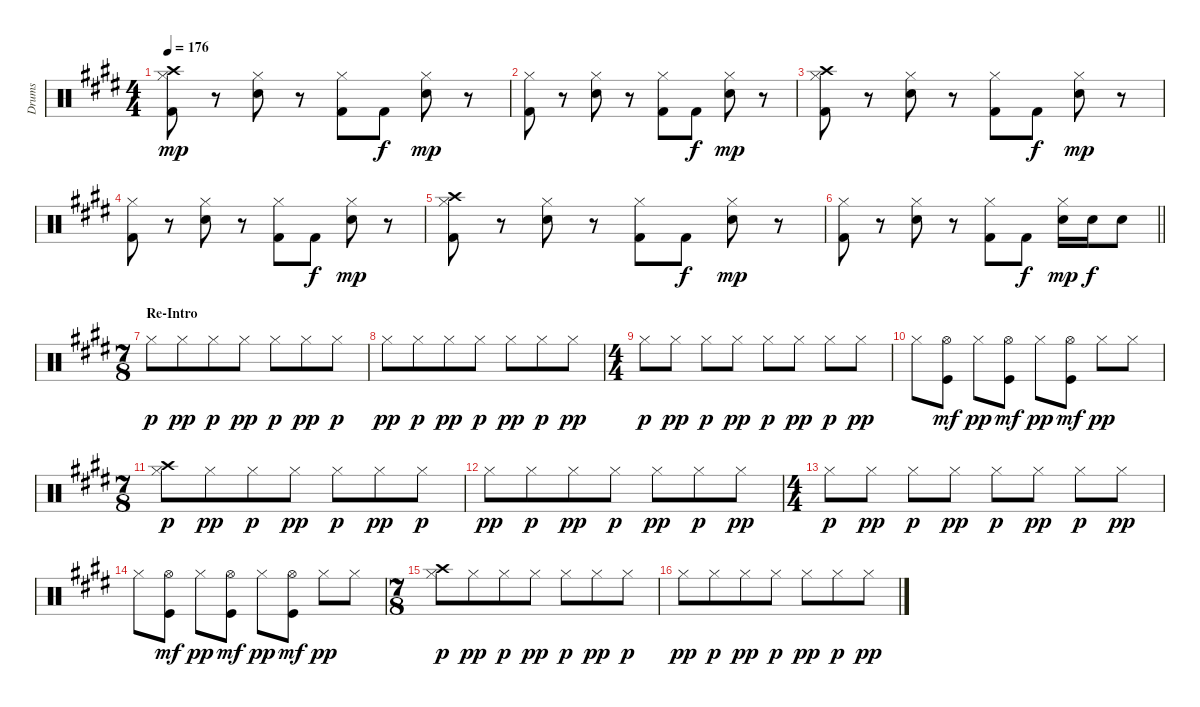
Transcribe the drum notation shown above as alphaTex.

\track ("Drums" "Drums") {instrument percussion}
\staff {score}
\articulation defaults
\ts (4 4)
\tempo 176
\clef neutral
\ks e
("Crash high (hit)" "Hi-Hat (closed)" "Kick (hit) 2").8{dy mp} r.8 ("Hi-Hat (closed)" "Snare (hit) 2").8 r.8 ("Hi-Hat (closed)" "Kick (hit) 2").8 "Kick (hit) 2".8{dy f} ("Hi-Hat (closed)" "Snare (hit) 2").8{dy mp} r.8 |
("Hi-Hat (closed)" "Kick (hit) 2").8 r.8 ("Hi-Hat (closed)" "Snare (hit) 2").8 r.8 ("Hi-Hat (closed)" "Kick (hit) 2").8 "Kick (hit) 2".8{dy f} ("Hi-Hat (closed)" "Snare (hit) 2").8{dy mp} r.8 |
("Crash high (hit)" "Hi-Hat (closed)" "Kick (hit) 2").8 r.8 ("Hi-Hat (closed)" "Snare (hit) 2").8 r.8 ("Hi-Hat (closed)" "Kick (hit) 2").8 "Kick (hit) 2".8{dy f} ("Hi-Hat (closed)" "Snare (hit) 2").8{dy mp} r.8 |
("Hi-Hat (closed)" "Kick (hit) 2").8 r.8 ("Hi-Hat (closed)" "Snare (hit) 2").8 r.8 ("Hi-Hat (closed)" "Kick (hit) 2").8 "Kick (hit) 2".8{dy f} ("Hi-Hat (closed)" "Snare (hit) 2").8{dy mp} r.8 |
("Crash high (hit)" "Hi-Hat (closed)" "Kick (hit) 2").8 r.8 ("Hi-Hat (closed)" "Snare (hit) 2").8 r.8 ("Hi-Hat (closed)" "Kick (hit) 2").8 "Kick (hit) 2".8{dy f} ("Hi-Hat (closed)" "Snare (hit) 2").8{dy mp} r.8 |
\barLineRight lightlight
("Hi-Hat (closed)" "Kick (hit) 2").8 r.8 ("Hi-Hat (closed)" "Snare (hit) 2").8 r.8 ("Hi-Hat (closed)" "Kick (hit) 2").8 "Kick (hit) 2".8{dy f} ("Hi-Hat (closed)" "Snare (hit) 2").16{dy mp} "Snare (hit) 2".16{dy f} "Snare (hit) 2".8 |
\ts (7 8)
\section ("" "Re-Intro")
"Hi-Hat (closed)".8{dy p} "Hi-Hat (closed)".8{dy pp} "Hi-Hat (closed)".8{dy p} "Hi-Hat (closed)".8{dy pp} "Hi-Hat (closed)".8{dy p} "Hi-Hat (closed)".8{dy pp} "Hi-Hat (closed)".8{dy p} |
"Hi-Hat (closed)".8{dy pp} "Hi-Hat (closed)".8{dy p} "Hi-Hat (closed)".8{dy pp} "Hi-Hat (closed)".8{dy p} "Hi-Hat (closed)".8{dy pp} "Hi-Hat (closed)".8{dy p} "Hi-Hat (closed)".8{dy pp} |
\ts (4 4)
"Hi-Hat (closed)".8{dy p} "Hi-Hat (closed)".8{dy pp} "Hi-Hat (closed)".8{dy p} "Hi-Hat (closed)".8{dy pp} "Hi-Hat (closed)".8{dy p} "Hi-Hat (closed)".8{dy pp} "Hi-Hat (closed)".8{dy p} "Hi-Hat (closed)".8{dy pp} |
"Hi-Hat (closed)".8 ("Hi-Hat (open)" "Kick (hit)").8{dy mf} "Hi-Hat (closed)".8{dy pp} ("Hi-Hat (open)" "Kick (hit)").8{dy mf} "Hi-Hat (closed)".8{dy pp} ("Hi-Hat (open)" "Kick (hit)").8{dy mf} "Hi-Hat (closed)".8{dy pp} "Hi-Hat (closed)".8 |
\ts (7 8)
("Crash high (hit)" "Hi-Hat (closed)").8{dy p} "Hi-Hat (closed)".8{dy pp} "Hi-Hat (closed)".8{dy p} "Hi-Hat (closed)".8{dy pp} "Hi-Hat (closed)".8{dy p} "Hi-Hat (closed)".8{dy pp} "Hi-Hat (closed)".8{dy p} |
"Hi-Hat (closed)".8{dy pp} "Hi-Hat (closed)".8{dy p} "Hi-Hat (closed)".8{dy pp} "Hi-Hat (closed)".8{dy p} "Hi-Hat (closed)".8{dy pp} "Hi-Hat (closed)".8{dy p} "Hi-Hat (closed)".8{dy pp} |
\ts (4 4)
"Hi-Hat (closed)".8{dy p} "Hi-Hat (closed)".8{dy pp} "Hi-Hat (closed)".8{dy p} "Hi-Hat (closed)".8{dy pp} "Hi-Hat (closed)".8{dy p} "Hi-Hat (closed)".8{dy pp} "Hi-Hat (closed)".8{dy p} "Hi-Hat (closed)".8{dy pp} |
"Hi-Hat (closed)".8 ("Hi-Hat (open)" "Kick (hit)").8{dy mf} "Hi-Hat (closed)".8{dy pp} ("Hi-Hat (open)" "Kick (hit)").8{dy mf} "Hi-Hat (closed)".8{dy pp} ("Hi-Hat (open)" "Kick (hit)").8{dy mf} "Hi-Hat (closed)".8{dy pp} "Hi-Hat (closed)".8 |
\ts (7 8)
("Crash high (hit)" "Hi-Hat (closed)").8{dy p} "Hi-Hat (closed)".8{dy pp} "Hi-Hat (closed)".8{dy p} "Hi-Hat (closed)".8{dy pp} "Hi-Hat (closed)".8{dy p} "Hi-Hat (closed)".8{dy pp} "Hi-Hat (closed)".8{dy p} |
"Hi-Hat (closed)".8{dy pp} "Hi-Hat (closed)".8{dy p} "Hi-Hat (closed)".8{dy pp} "Hi-Hat (closed)".8{dy p} "Hi-Hat (closed)".8{dy pp} "Hi-Hat (closed)".8{dy p} "Hi-Hat (closed)".8{dy pp}
